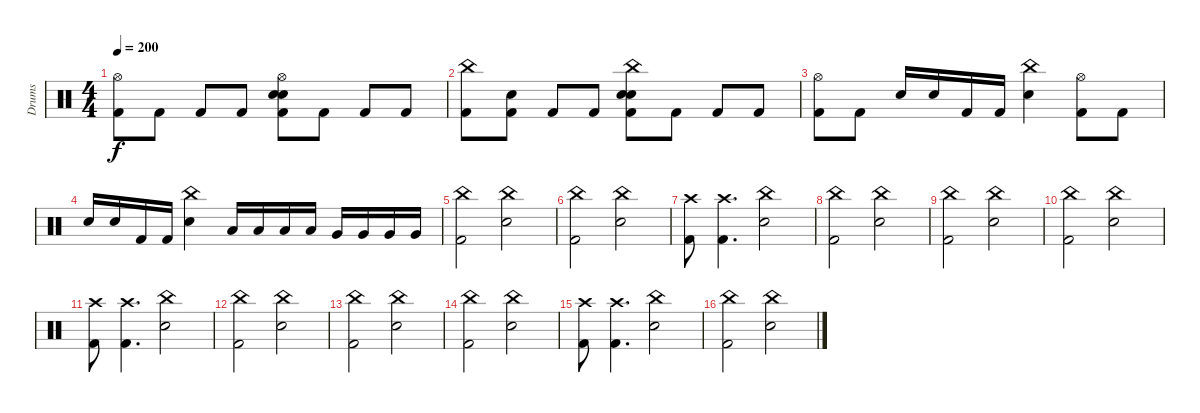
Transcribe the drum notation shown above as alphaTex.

\track ("Drums" "Drums") {instrument percussion}
\staff {score}
\articulation defaults
\ts (4 4)
\tempo 200
\clef neutral
\ks c
("Hi-Hat (open)" "Kick (hit) 2").8{dy f} "Kick (hit) 2".8 "Kick (hit) 2".8 "Kick (hit) 2".8 ("Hi-Hat (open)" "Snare (hit) 2" "Snare (hit) 2" "Kick (hit) 2").8 "Kick (hit) 2".8 "Kick (hit) 2".8 "Kick (hit) 2".8 |
("China (hit)" "Kick (hit) 2").8 ("Snare (hit) 2" "Kick (hit) 2").8 "Kick (hit) 2".8 "Kick (hit) 2".8 ("China (hit)" "Snare (hit) 2" "Snare (hit) 2" "Kick (hit) 2").8 "Kick (hit) 2".8 "Kick (hit) 2".8 "Kick (hit) 2".8 |
("Hi-Hat (open)" "Kick (hit) 2").8 "Kick (hit) 2".8 "Snare (hit) 2".16 "Snare (hit) 2".16 "Kick (hit) 2".16 "Kick (hit) 2".16 ("China (hit)" "Snare (hit) 2").4 ("Hi-Hat (open)" "Kick (hit) 2").8 "Kick (hit) 2".8 |
"Snare (hit) 2".16 "Snare (hit) 2".16 "Kick (hit) 2".16 "Kick (hit) 2".16 ("China (hit)" "Snare (hit) 2").4 "Low Tom (hit)".16 "Low Tom (hit)".16 "Low Tom (hit)".16 "Low Tom (hit)".16 "Very Low Tom (hit)".16 "Very Low Tom (hit)".16 "Very Low Tom (hit)".16 "Very Low Tom (hit)".16 |
("China (hit)" "Kick (hit) 2").2 ("China (hit)" "Snare (hit) 2").2 |
("China (hit)" "Kick (hit) 2").2 ("China (hit)" "Snare (hit) 2").2 |
("Crash high (hit)"{x} "Kick (hit) 2").8 ("Crash high (hit)"{x} "Kick (hit) 2").4{d} ("China (hit)" "Snare (hit) 2").2 |
("China (hit)" "Kick (hit) 2").2 ("China (hit)" "Snare (hit) 2").2 |
("China (hit)" "Kick (hit) 2").2 ("China (hit)" "Snare (hit) 2").2 |
("China (hit)" "Kick (hit) 2").2 ("China (hit)" "Snare (hit) 2").2 |
("Crash high (hit)"{x} "Kick (hit) 2").8 ("Crash high (hit)"{x} "Kick (hit) 2").4{d} ("China (hit)" "Snare (hit) 2").2 |
("China (hit)" "Kick (hit) 2").2 ("China (hit)" "Snare (hit) 2").2 |
("China (hit)" "Kick (hit) 2").2 ("China (hit)" "Snare (hit) 2").2 |
("China (hit)" "Kick (hit) 2").2 ("China (hit)" "Snare (hit) 2").2 |
("Crash high (hit)"{x} "Kick (hit) 2").8 ("Crash high (hit)"{x} "Kick (hit) 2").4{d} ("China (hit)" "Snare (hit) 2").2 |
("China (hit)" "Kick (hit) 2").2 ("China (hit)" "Snare (hit) 2").2
